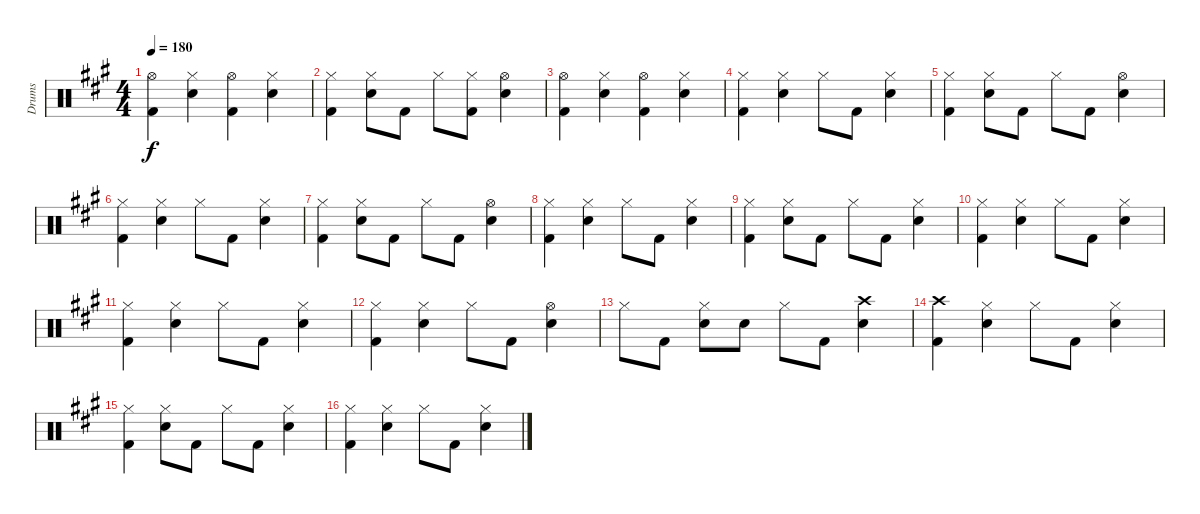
\track ("Drums" "Drums") {instrument percussion}
\staff {score}
\articulation defaults
\ts (4 4)
\tempo 180
\clef neutral
\ks a
("Hi-Hat (open)" "Kick (hit) 2").4{dy f} ("Hi-Hat (closed)" "Electric Snare (hit)").4 ("Hi-Hat (open)" "Kick (hit) 2").4 ("Hi-Hat (closed)" "Electric Snare (hit)").4 |
("Hi-Hat (closed)" "Kick (hit) 2").4 ("Hi-Hat (closed)" "Electric Snare (hit)").8 "Kick (hit) 2".8 "Hi-Hat (closed)".8 ("Hi-Hat (closed)" "Kick (hit) 2").8 ("Hi-Hat (open)" "Electric Snare (hit)").4 |
("Hi-Hat (open)" "Kick (hit) 2").4 ("Hi-Hat (closed)" "Electric Snare (hit)").4 ("Hi-Hat (open)" "Kick (hit) 2").4 ("Hi-Hat (closed)" "Electric Snare (hit)").4 |
("Hi-Hat (closed)" "Kick (hit) 2").4 ("Hi-Hat (closed)" "Electric Snare (hit)").4 "Hi-Hat (closed)".8 "Kick (hit) 2".8 ("Hi-Hat (closed)" "Electric Snare (hit)").4 |
("Hi-Hat (closed)" "Kick (hit) 2").4 ("Hi-Hat (closed)" "Electric Snare (hit)").8 "Kick (hit) 2".8 "Hi-Hat (closed)".8 "Kick (hit) 2".8 ("Hi-Hat (open)" "Electric Snare (hit)").4 |
("Hi-Hat (closed)" "Kick (hit) 2").4 ("Hi-Hat (closed)" "Electric Snare (hit)").4 "Hi-Hat (closed)".8 "Kick (hit) 2".8 ("Hi-Hat (closed)" "Electric Snare (hit)").4 |
("Hi-Hat (closed)" "Kick (hit) 2").4 ("Hi-Hat (closed)" "Electric Snare (hit)").8 "Kick (hit) 2".8 "Hi-Hat (closed)".8 "Kick (hit) 2".8 ("Hi-Hat (open)" "Electric Snare (hit)").4 |
("Hi-Hat (closed)" "Kick (hit) 2").4 ("Hi-Hat (closed)" "Electric Snare (hit)").4 "Hi-Hat (closed)".8 "Kick (hit) 2".8 ("Hi-Hat (closed)" "Electric Snare (hit)").4 |
("Hi-Hat (closed)" "Kick (hit) 2").4 ("Hi-Hat (closed)" "Electric Snare (hit)").8 "Kick (hit) 2".8 "Hi-Hat (closed)".8 "Kick (hit) 2".8 ("Hi-Hat (closed)" "Electric Snare (hit)").4 |
("Hi-Hat (closed)" "Kick (hit) 2").4 ("Hi-Hat (closed)" "Electric Snare (hit)").4 "Hi-Hat (closed)".8 "Kick (hit) 2".8 ("Hi-Hat (closed)" "Electric Snare (hit)").4 |
("Hi-Hat (closed)" "Kick (hit) 2").4 ("Hi-Hat (closed)" "Electric Snare (hit)").4 "Hi-Hat (closed)".8 "Kick (hit) 2".8 ("Hi-Hat (closed)" "Electric Snare (hit)").4 |
("Hi-Hat (closed)" "Kick (hit) 2").4 ("Hi-Hat (closed)" "Electric Snare (hit)").4 "Hi-Hat (closed)".8 "Kick (hit) 2".8 ("Hi-Hat (open)" "Electric Snare (hit)").4 |
"Hi-Hat (closed)".8 "Kick (hit) 2".8 ("Hi-Hat (closed)" "Electric Snare (hit)").8 "Electric Snare (hit)".8 "Hi-Hat (closed)".8 "Kick (hit) 2".8 ("Crash high (hit)" "Electric Snare (hit)").4 |
("Crash high (hit)" "Kick (hit) 2").4 ("Hi-Hat (closed)" "Electric Snare (hit)").4 "Hi-Hat (closed)".8 "Kick (hit) 2".8 ("Hi-Hat (closed)" "Electric Snare (hit)").4 |
("Hi-Hat (closed)" "Kick (hit) 2").4 ("Hi-Hat (closed)" "Electric Snare (hit)").8 "Kick (hit) 2".8 "Hi-Hat (closed)".8 "Kick (hit) 2".8 ("Hi-Hat (closed)" "Electric Snare (hit)").4 |
("Hi-Hat (closed)" "Kick (hit) 2").4 ("Hi-Hat (closed)" "Electric Snare (hit)").4 "Hi-Hat (closed)".8 "Kick (hit) 2".8 ("Hi-Hat (closed)" "Electric Snare (hit)").4
